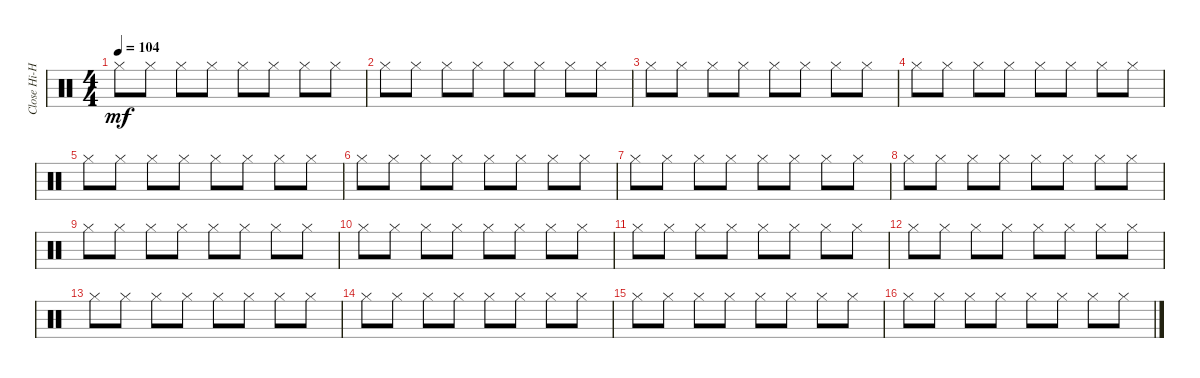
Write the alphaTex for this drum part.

\track ("Close Hi-Hat" "Close Hi-H") {instrument percussion}
\staff {score}
\articulation defaults
\ts (4 4)
\tempo 104
\clef neutral
\ks c "Hi-Hat (closed)".8{dy mf} "Hi-Hat (closed)".8 "Hi-Hat (closed)".8 "Hi-Hat (closed)".8 "Hi-Hat (closed)".8 "Hi-Hat (closed)".8 "Hi-Hat (closed)".8 "Hi-Hat (closed)".8
|
"Hi-Hat (closed)".8 "Hi-Hat (closed)".8 "Hi-Hat (closed)".8 "Hi-Hat (closed)".8 "Hi-Hat (closed)".8 "Hi-Hat (closed)".8 "Hi-Hat (closed)".8 "Hi-Hat (closed)".8 |
"Hi-Hat (closed)".8 "Hi-Hat (closed)".8 "Hi-Hat (closed)".8 "Hi-Hat (closed)".8 "Hi-Hat (closed)".8 "Hi-Hat (closed)".8 "Hi-Hat (closed)".8 "Hi-Hat (closed)".8 |
"Hi-Hat (closed)".8 "Hi-Hat (closed)".8 "Hi-Hat (closed)".8 "Hi-Hat (closed)".8 "Hi-Hat (closed)".8 "Hi-Hat (closed)".8 "Hi-Hat (closed)".8 "Hi-Hat (closed)".8 |
"Hi-Hat (closed)".8 "Hi-Hat (closed)".8 "Hi-Hat (closed)".8 "Hi-Hat (closed)".8 "Hi-Hat (closed)".8 "Hi-Hat (closed)".8 "Hi-Hat (closed)".8 "Hi-Hat (closed)".8 |
"Hi-Hat (closed)".8 "Hi-Hat (closed)".8 "Hi-Hat (closed)".8 "Hi-Hat (closed)".8 "Hi-Hat (closed)".8 "Hi-Hat (closed)".8 "Hi-Hat (closed)".8 "Hi-Hat (closed)".8 |
"Hi-Hat (closed)".8 "Hi-Hat (closed)".8 "Hi-Hat (closed)".8 "Hi-Hat (closed)".8 "Hi-Hat (closed)".8 "Hi-Hat (closed)".8 "Hi-Hat (closed)".8 "Hi-Hat (closed)".8 |
"Hi-Hat (closed)".8 "Hi-Hat (closed)".8 "Hi-Hat (closed)".8 "Hi-Hat (closed)".8 "Hi-Hat (closed)".8 "Hi-Hat (closed)".8 "Hi-Hat (closed)".8 "Hi-Hat (closed)".8 |
"Hi-Hat (closed)".8 "Hi-Hat (closed)".8 "Hi-Hat (closed)".8 "Hi-Hat (closed)".8 "Hi-Hat (closed)".8 "Hi-Hat (closed)".8 "Hi-Hat (closed)".8 "Hi-Hat (closed)".8 |
"Hi-Hat (closed)".8 "Hi-Hat (closed)".8 "Hi-Hat (closed)".8 "Hi-Hat (closed)".8 "Hi-Hat (closed)".8 "Hi-Hat (closed)".8 "Hi-Hat (closed)".8 "Hi-Hat (closed)".8 |
"Hi-Hat (closed)".8 "Hi-Hat (closed)".8 "Hi-Hat (closed)".8 "Hi-Hat (closed)".8 "Hi-Hat (closed)".8 "Hi-Hat (closed)".8 "Hi-Hat (closed)".8 "Hi-Hat (closed)".8 |
"Hi-Hat (closed)".8 "Hi-Hat (closed)".8 "Hi-Hat (closed)".8 "Hi-Hat (closed)".8 "Hi-Hat (closed)".8 "Hi-Hat (closed)".8 "Hi-Hat (closed)".8 "Hi-Hat (closed)".8 |
"Hi-Hat (closed)".8 "Hi-Hat (closed)".8 "Hi-Hat (closed)".8 "Hi-Hat (closed)".8 "Hi-Hat (closed)".8 "Hi-Hat (closed)".8 "Hi-Hat (closed)".8 "Hi-Hat (closed)".8 |
"Hi-Hat (closed)".8 "Hi-Hat (closed)".8 "Hi-Hat (closed)".8 "Hi-Hat (closed)".8 "Hi-Hat (closed)".8 "Hi-Hat (closed)".8 "Hi-Hat (closed)".8 "Hi-Hat (closed)".8 |
"Hi-Hat (closed)".8 "Hi-Hat (closed)".8 "Hi-Hat (closed)".8 "Hi-Hat (closed)".8 "Hi-Hat (closed)".8 "Hi-Hat (closed)".8 "Hi-Hat (closed)".8 "Hi-Hat (closed)".8 |
"Hi-Hat (closed)".8 "Hi-Hat (closed)".8 "Hi-Hat (closed)".8 "Hi-Hat (closed)".8 "Hi-Hat (closed)".8 "Hi-Hat (closed)".8 "Hi-Hat (closed)".8 "Hi-Hat (closed)".8
